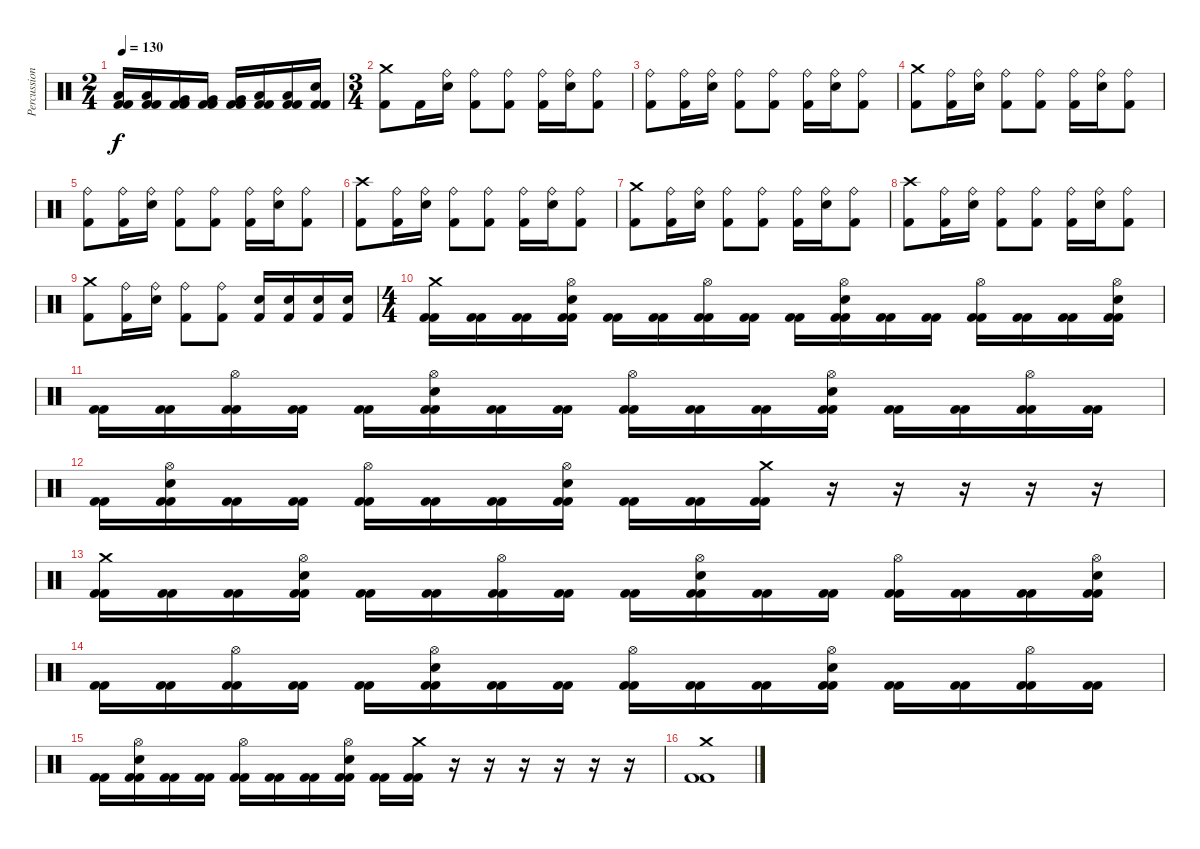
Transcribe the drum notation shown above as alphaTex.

\track ("Percussion" "Percussion") {instrument percussion}
\staff {score}
\articulation defaults
\ts (2 4)
\tempo 130
\clef neutral
\ks c
("Low Tom (hit)" "Kick (hit) 2" "Kick (hit) 2").16{dy f} ("Low Tom (hit)" "Kick (hit) 2" "Kick (hit) 2").16 ("Very Low Tom (hit)" "Kick (hit) 2" "Kick (hit) 2").16 ("Very Low Tom (hit)" "Kick (hit) 2" "Kick (hit) 2").16 ("Very Low Tom (hit)" "Kick (hit) 2" "Kick (hit) 2").16 ("Low Floor Tom (hit)" "Kick (hit) 2" "Kick (hit) 2").16 ("Low Floor Tom (hit)" "Kick (hit) 2" "Kick (hit) 2").16 ("Electric Snare (hit)" "Kick (hit) 2" "Kick (hit) 2").16 |
\ts (3 4)
("Crash medium (hit)" "Kick (hit) 2").8 "Kick (hit) 2".16 ("Ride (bell)" "Electric Snare (hit)").16 ("Ride (bell)" "Kick (hit) 2").8 ("Ride (bell)" "Kick (hit) 2").8 ("Ride (bell)" "Kick (hit) 2").16 ("Ride (bell)" "Electric Snare (hit)").16 ("Ride (bell)" "Kick (hit) 2").8 |
("Ride (bell)" "Kick (hit) 2").8 ("Ride (bell)" "Kick (hit) 2").16 ("Ride (bell)" "Electric Snare (hit)").16 ("Ride (bell)" "Kick (hit) 2").8 ("Ride (bell)" "Kick (hit) 2").8 ("Ride (bell)" "Kick (hit) 2").16 ("Ride (bell)" "Electric Snare (hit)").16 ("Ride (bell)" "Kick (hit) 2").8 |
("Crash medium (hit)" "Kick (hit) 2").8 ("Ride (bell)" "Kick (hit) 2").16 ("Ride (bell)" "Electric Snare (hit)").16 ("Ride (bell)" "Kick (hit) 2").8 ("Ride (bell)" "Kick (hit) 2").8 ("Ride (bell)" "Kick (hit) 2").16 ("Ride (bell)" "Electric Snare (hit)").16 ("Ride (bell)" "Kick (hit) 2").8 |
("Ride (bell)" "Kick (hit) 2").8 ("Ride (bell)" "Kick (hit) 2").16 ("Ride (bell)" "Electric Snare (hit)").16 ("Ride (bell)" "Kick (hit) 2").8 ("Ride (bell)" "Kick (hit) 2").8 ("Ride (bell)" "Kick (hit) 2").16 ("Ride (bell)" "Electric Snare (hit)").16 ("Ride (bell)" "Kick (hit) 2").8 |
("Crash high (hit)" "Kick (hit) 2").8 ("Ride (bell)" "Kick (hit) 2").16 ("Ride (bell)" "Electric Snare (hit)").16 ("Ride (bell)" "Kick (hit) 2").8 ("Ride (bell)" "Kick (hit) 2").8 ("Ride (bell)" "Kick (hit) 2").16 ("Ride (bell)" "Electric Snare (hit)").16 ("Ride (bell)" "Kick (hit) 2").8 |
("Crash medium (hit)" "Kick (hit) 2").8 ("Ride (bell)" "Kick (hit) 2").16 ("Ride (bell)" "Electric Snare (hit)").16 ("Ride (bell)" "Kick (hit) 2").8 ("Ride (bell)" "Kick (hit) 2").8 ("Ride (bell)" "Kick (hit) 2").16 ("Ride (bell)" "Electric Snare (hit)").16 ("Ride (bell)" "Kick (hit) 2").8 |
("Crash high (hit)" "Kick (hit) 2").8 ("Ride (bell)" "Kick (hit) 2").16 ("Ride (bell)" "Electric Snare (hit)").16 ("Ride (bell)" "Kick (hit) 2").8 ("Ride (bell)" "Kick (hit) 2").8 ("Ride (bell)" "Kick (hit) 2").16 ("Ride (bell)" "Electric Snare (hit)").16 ("Ride (bell)" "Kick (hit) 2").8 |
("Crash medium (hit)" "Kick (hit) 2").8 ("Ride (bell)" "Kick (hit) 2").16 ("Ride (bell)" "Electric Snare (hit)").16 ("Ride (bell)" "Kick (hit) 2").8 ("Ride (bell)" "Kick (hit) 2").8 ("Electric Snare (hit)" "Kick (hit) 2").16 ("Electric Snare (hit)" "Kick (hit) 2").16 ("Electric Snare (hit)" "Kick (hit) 2").16 ("Electric Snare (hit)" "Kick (hit) 2").16 |
\ts (4 4)
("Crash medium (hit)" "Kick (hit) 2" "Kick (hit) 2").16 ("Kick (hit) 2" "Kick (hit) 2").16 ("Kick (hit) 2" "Kick (hit) 2").16 ("Hi-Hat (open)" "Electric Snare (hit)" "Kick (hit) 2" "Kick (hit) 2").16 ("Kick (hit) 2" "Kick (hit) 2").16 ("Kick (hit) 2" "Kick (hit) 2").16 ("Hi-Hat (open)" "Kick (hit) 2" "Kick (hit) 2").16 ("Kick (hit) 2" "Kick (hit) 2").16 ("Kick (hit) 2" "Kick (hit) 2").16 ("Hi-Hat (open)" "Electric Snare (hit)" "Kick (hit) 2" "Kick (hit) 2").16 ("Kick (hit) 2" "Kick (hit) 2").16 ("Kick (hit) 2" "Kick (hit) 2").16 ("Hi-Hat (open)" "Kick (hit) 2" "Kick (hit) 2").16 ("Kick (hit) 2" "Kick (hit) 2").16 ("Kick (hit) 2" "Kick (hit) 2").16 ("Hi-Hat (open)" "Electric Snare (hit)" "Kick (hit) 2" "Kick (hit) 2").16 |
("Kick (hit) 2" "Kick (hit) 2").16 ("Kick (hit) 2" "Kick (hit) 2").16 ("Hi-Hat (open)" "Kick (hit) 2" "Kick (hit) 2").16 ("Kick (hit) 2" "Kick (hit) 2").16 ("Kick (hit) 2" "Kick (hit) 2").16 ("Hi-Hat (open)" "Electric Snare (hit)" "Kick (hit) 2" "Kick (hit) 2").16 ("Kick (hit) 2" "Kick (hit) 2").16 ("Kick (hit) 2" "Kick (hit) 2").16 ("Hi-Hat (open)" "Kick (hit) 2" "Kick (hit) 2").16 ("Kick (hit) 2" "Kick (hit) 2").16 ("Kick (hit) 2" "Kick (hit) 2").16 ("Hi-Hat (open)" "Electric Snare (hit)" "Kick (hit) 2" "Kick (hit) 2").16 ("Kick (hit) 2" "Kick (hit) 2").16 ("Kick (hit) 2" "Kick (hit) 2").16 ("Hi-Hat (open)" "Kick (hit) 2" "Kick (hit) 2").16 ("Kick (hit) 2" "Kick (hit) 2").16 |
("Kick (hit) 2" "Kick (hit) 2").16 ("Hi-Hat (open)" "Electric Snare (hit)" "Kick (hit) 2" "Kick (hit) 2").16 ("Kick (hit) 2" "Kick (hit) 2").16 ("Kick (hit) 2" "Kick (hit) 2").16 ("Hi-Hat (open)" "Kick (hit) 2" "Kick (hit) 2").16 ("Kick (hit) 2" "Kick (hit) 2").16 ("Kick (hit) 2" "Kick (hit) 2").16 ("Hi-Hat (open)" "Electric Snare (hit)" "Kick (hit) 2" "Kick (hit) 2").16 ("Kick (hit) 2" "Kick (hit) 2").16 ("Kick (hit) 2" "Kick (hit) 2").16 ("Crash medium (hit)" "Kick (hit) 2" "Kick (hit) 2").16 r.16 r.16 r.16 r.16 r.16 |
("Crash medium (hit)" "Kick (hit) 2" "Kick (hit) 2").16 ("Kick (hit) 2" "Kick (hit) 2").16 ("Kick (hit) 2" "Kick (hit) 2").16 ("Hi-Hat (open)" "Electric Snare (hit)" "Kick (hit) 2" "Kick (hit) 2").16 ("Kick (hit) 2" "Kick (hit) 2").16 ("Kick (hit) 2" "Kick (hit) 2").16 ("Hi-Hat (open)" "Kick (hit) 2" "Kick (hit) 2").16 ("Kick (hit) 2" "Kick (hit) 2").16 ("Kick (hit) 2" "Kick (hit) 2").16 ("Hi-Hat (open)" "Electric Snare (hit)" "Kick (hit) 2" "Kick (hit) 2").16 ("Kick (hit) 2" "Kick (hit) 2").16 ("Kick (hit) 2" "Kick (hit) 2").16 ("Hi-Hat (open)" "Kick (hit) 2" "Kick (hit) 2").16 ("Kick (hit) 2" "Kick (hit) 2").16 ("Kick (hit) 2" "Kick (hit) 2").16 ("Hi-Hat (open)" "Electric Snare (hit)" "Kick (hit) 2" "Kick (hit) 2").16 |
("Kick (hit) 2" "Kick (hit) 2").16 ("Kick (hit) 2" "Kick (hit) 2").16 ("Hi-Hat (open)" "Kick (hit) 2" "Kick (hit) 2").16 ("Kick (hit) 2" "Kick (hit) 2").16 ("Kick (hit) 2" "Kick (hit) 2").16 ("Hi-Hat (open)" "Electric Snare (hit)" "Kick (hit) 2" "Kick (hit) 2").16 ("Kick (hit) 2" "Kick (hit) 2").16 ("Kick (hit) 2" "Kick (hit) 2").16 ("Hi-Hat (open)" "Kick (hit) 2" "Kick (hit) 2").16 ("Kick (hit) 2" "Kick (hit) 2").16 ("Kick (hit) 2" "Kick (hit) 2").16 ("Hi-Hat (open)" "Electric Snare (hit)" "Kick (hit) 2" "Kick (hit) 2").16 ("Kick (hit) 2" "Kick (hit) 2").16 ("Kick (hit) 2" "Kick (hit) 2").16 ("Hi-Hat (open)" "Kick (hit) 2" "Kick (hit) 2").16 ("Kick (hit) 2" "Kick (hit) 2").16 |
("Kick (hit) 2" "Kick (hit) 2").16 ("Hi-Hat (open)" "Electric Snare (hit)" "Kick (hit) 2" "Kick (hit) 2").16 ("Kick (hit) 2" "Kick (hit) 2").16 ("Kick (hit) 2" "Kick (hit) 2").16 ("Hi-Hat (open)" "Kick (hit) 2" "Kick (hit) 2").16 ("Kick (hit) 2" "Kick (hit) 2").16 ("Kick (hit) 2" "Kick (hit) 2").16 ("Hi-Hat (open)" "Electric Snare (hit)" "Kick (hit) 2" "Kick (hit) 2").16 ("Kick (hit) 2" "Kick (hit) 2").16 ("Crash medium (hit)" "Kick (hit) 2" "Kick (hit) 2").16 r.16 r.16 r.16 r.16 r.16 r.16 |
("Crash medium (hit)" "Kick (hit) 2" "Kick (hit) 2").1
